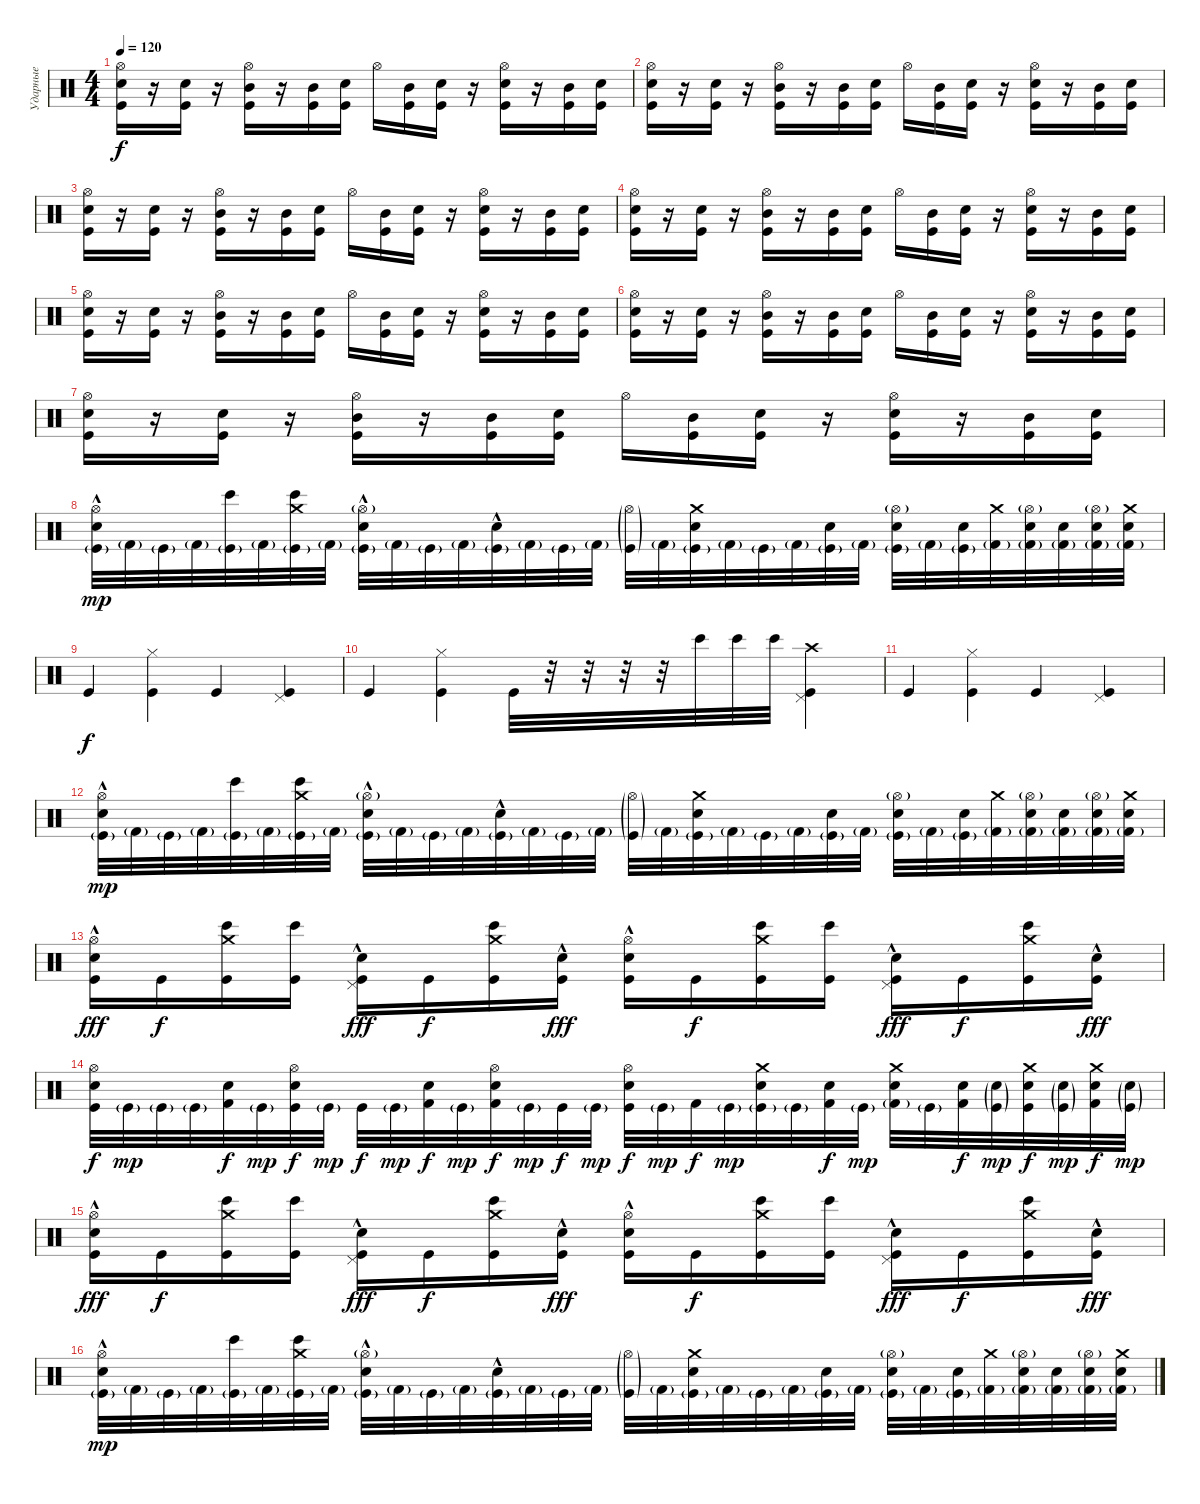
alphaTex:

\track ("Ударные" "Ударные") {instrument percussion}
\staff {score}
\articulation defaults
\ts (4 4)
\tempo 120
\clef neutral
\ks c
("Hi-Hat (open)" "Snare (hit) 2" "Kick (hit)").16{dy f} r.16 ("Snare (hit) 2" "Kick (hit)").16 r.16 ("Hi-Hat (open)" "Mid Tom (hit)" "Kick (hit)").16 r.16 ("Mid Tom (hit)" "Kick (hit)").16 ("Snare (hit) 2" "Kick (hit)").16 "Hi-Hat (open)".16 ("Mid Tom (hit)" "Kick (hit)").16 ("Snare (hit) 2" "Kick (hit)").16 r.16 ("Hi-Hat (open)" "Snare (hit) 2" "Kick (hit)").16 r.16 ("Mid Tom (hit)" "Kick (hit)").16 ("Snare (hit) 2" "Kick (hit)").16 |
("Hi-Hat (open)" "Snare (hit) 2" "Kick (hit)").16 r.16 ("Snare (hit) 2" "Kick (hit)").16 r.16 ("Hi-Hat (open)" "Mid Tom (hit)" "Kick (hit)").16 r.16 ("Mid Tom (hit)" "Kick (hit)").16 ("Snare (hit) 2" "Kick (hit)").16 "Hi-Hat (open)".16 ("Mid Tom (hit)" "Kick (hit)").16 ("Snare (hit) 2" "Kick (hit)").16 r.16 ("Hi-Hat (open)" "Snare (hit) 2" "Kick (hit)").16 r.16 ("Mid Tom (hit)" "Kick (hit)").16 ("Snare (hit) 2" "Kick (hit)").16 |
("Hi-Hat (open)" "Snare (hit) 2" "Kick (hit)").16 r.16 ("Snare (hit) 2" "Kick (hit)").16 r.16 ("Hi-Hat (open)" "Mid Tom (hit)" "Kick (hit)").16 r.16 ("Mid Tom (hit)" "Kick (hit)").16 ("Snare (hit) 2" "Kick (hit)").16 "Hi-Hat (open)".16 ("Mid Tom (hit)" "Kick (hit)").16 ("Snare (hit) 2" "Kick (hit)").16 r.16 ("Hi-Hat (open)" "Snare (hit) 2" "Kick (hit)").16 r.16 ("Mid Tom (hit)" "Kick (hit)").16 ("Snare (hit) 2" "Kick (hit)").16 |
("Hi-Hat (open)" "Snare (hit) 2" "Kick (hit)").16 r.16 ("Snare (hit) 2" "Kick (hit)").16 r.16 ("Hi-Hat (open)" "Mid Tom (hit)" "Kick (hit)").16 r.16 ("Mid Tom (hit)" "Kick (hit)").16 ("Snare (hit) 2" "Kick (hit)").16 "Hi-Hat (open)".16 ("Mid Tom (hit)" "Kick (hit)").16 ("Snare (hit) 2" "Kick (hit)").16 r.16 ("Hi-Hat (open)" "Snare (hit) 2" "Kick (hit)").16 r.16 ("Mid Tom (hit)" "Kick (hit)").16 ("Snare (hit) 2" "Kick (hit)").16 |
("Hi-Hat (open)" "Snare (hit) 2" "Kick (hit)").16 r.16 ("Snare (hit) 2" "Kick (hit)").16 r.16 ("Hi-Hat (open)" "Mid Tom (hit)" "Kick (hit)").16 r.16 ("Mid Tom (hit)" "Kick (hit)").16 ("Snare (hit) 2" "Kick (hit)").16 "Hi-Hat (open)".16 ("Mid Tom (hit)" "Kick (hit)").16 ("Snare (hit) 2" "Kick (hit)").16 r.16 ("Hi-Hat (open)" "Snare (hit) 2" "Kick (hit)").16 r.16 ("Mid Tom (hit)" "Kick (hit)").16 ("Snare (hit) 2" "Kick (hit)").16 |
("Hi-Hat (open)" "Snare (hit) 2" "Kick (hit)").16 r.16 ("Snare (hit) 2" "Kick (hit)").16 r.16 ("Hi-Hat (open)" "Mid Tom (hit)" "Kick (hit)").16 r.16 ("Mid Tom (hit)" "Kick (hit)").16 ("Snare (hit) 2" "Kick (hit)").16 "Hi-Hat (open)".16 ("Mid Tom (hit)" "Kick (hit)").16 ("Snare (hit) 2" "Kick (hit)").16 r.16 ("Hi-Hat (open)" "Snare (hit) 2" "Kick (hit)").16 r.16 ("Mid Tom (hit)" "Kick (hit)").16 ("Snare (hit) 2" "Kick (hit)").16 |
("Hi-Hat (open)" "Snare (hit) 2" "Kick (hit)").16 r.16 ("Snare (hit) 2" "Kick (hit)").16 r.16 ("Hi-Hat (open)" "Mid Tom (hit)" "Kick (hit)").16 r.16 ("Mid Tom (hit)" "Kick (hit)").16 ("Snare (hit) 2" "Kick (hit)").16 "Hi-Hat (open)".16 ("Mid Tom (hit)" "Kick (hit)").16 ("Snare (hit) 2" "Kick (hit)").16 r.16 ("Hi-Hat (open)" "Snare (hit) 2" "Kick (hit)").16 r.16 ("Mid Tom (hit)" "Kick (hit)").16 ("Snare (hit) 2" "Kick (hit)").16 |
("Hi-Hat (open)" "Snare (hit) 2"{hac} "Kick (hit)"{g}).32{dy mp} "Kick (hit) 2"{g}.32 "Kick (hit)"{g}.32 "Kick (hit) 2"{g}.32 ("Bongo High (hit)" "Kick (hit)"{g}).32 "Kick (hit) 2"{g}.32 ("Crash medium (hit)" "Bongo High (hit)" "Kick (hit)"{g}).32 "Kick (hit) 2"{g}.32 ("Hi-Hat (open)"{g} "Electric Snare (hit)"{hac} "Kick (hit)"{g}).32 "Kick (hit) 2"{g}.32 "Kick (hit)"{g}.32 "Kick (hit) 2"{g}.32 ("Snare (hit) 2"{hac} "Kick (hit)"{g}).32 "Kick (hit) 2"{g}.32 "Kick (hit)"{g}.32 "Kick (hit) 2"{g}.32 ("Hi-Hat (open)"{g} "Kick (hit)"{g}).32 "Kick (hit) 2"{g}.32 ("Crash medium (hit)" "Snare (hit) 2" "Kick (hit)"{g}).32 "Kick (hit) 2"{g}.32 "Kick (hit)"{g}.32 "Kick (hit) 2"{g}.32 ("Snare (hit) 2" "Kick (hit)"{g}).32 "Kick (hit) 2"{g}.32 ("Hi-Hat (open)"{g} "Electric Snare (hit)" "Kick (hit)"{g}).32 "Kick (hit) 2"{g}.32 ("Electric Snare (hit)" "Kick (hit)"{g}).32 ("Crash medium (hit)" "Kick (hit) 2"{g}).32 ("Hi-Hat (open)"{g} "Electric Snare (hit)" "Kick (hit) 2"{g}).32 ("Electric Snare (hit)" "Kick (hit) 2"{g}).32 ("Hi-Hat (open)"{g} "Electric Snare (hit)" "Kick (hit) 2"{g}).32 ("Crash medium (hit)" "Electric Snare (hit)" "Kick (hit) 2"{g}).32 |
"Kick (hit)".4{dy f} ("Hi-Hat (closed)" "Kick (hit)").4 "Kick (hit)".4 ("Pedal Hi-Hat (hit)" "Kick (hit)").4 |
"Kick (hit)".4 ("Hi-Hat (closed)" "Kick (hit)").4 "Kick (hit)".32 r.32 r.32 r.32 r.32 "Bongo High (hit)".32 "Bongo High (hit)".32 "Bongo High (hit)".32 ("Crash high (hit)" "Pedal Hi-Hat (hit)" "Kick (hit)").4 |
"Kick (hit)".4 ("Hi-Hat (closed)" "Kick (hit)").4 "Kick (hit)".4 ("Pedal Hi-Hat (hit)" "Kick (hit)").4 |
("Hi-Hat (open)" "Snare (hit) 2"{hac} "Kick (hit)"{g}).32{dy mp} "Kick (hit) 2"{g}.32 "Kick (hit)"{g}.32 "Kick (hit) 2"{g}.32 ("Bongo High (hit)" "Kick (hit)"{g}).32 "Kick (hit) 2"{g}.32 ("Crash medium (hit)" "Bongo High (hit)" "Kick (hit)"{g}).32 "Kick (hit) 2"{g}.32 ("Hi-Hat (open)"{g} "Electric Snare (hit)"{hac} "Kick (hit)"{g}).32 "Kick (hit) 2"{g}.32 "Kick (hit)"{g}.32 "Kick (hit) 2"{g}.32 ("Snare (hit) 2"{hac} "Kick (hit)"{g}).32 "Kick (hit) 2"{g}.32 "Kick (hit)"{g}.32 "Kick (hit) 2"{g}.32 ("Hi-Hat (open)"{g} "Kick (hit)"{g}).32 "Kick (hit) 2"{g}.32 ("Crash medium (hit)" "Snare (hit) 2" "Kick (hit)"{g}).32 "Kick (hit) 2"{g}.32 "Kick (hit)"{g}.32 "Kick (hit) 2"{g}.32 ("Snare (hit) 2" "Kick (hit)"{g}).32 "Kick (hit) 2"{g}.32 ("Hi-Hat (open)"{g} "Electric Snare (hit)" "Kick (hit)"{g}).32 "Kick (hit) 2"{g}.32 ("Electric Snare (hit)" "Kick (hit)"{g}).32 ("Crash medium (hit)" "Kick (hit) 2"{g}).32 ("Hi-Hat (open)"{g} "Electric Snare (hit)" "Kick (hit) 2"{g}).32 ("Electric Snare (hit)" "Kick (hit) 2"{g}).32 ("Hi-Hat (open)"{g} "Electric Snare (hit)" "Kick (hit) 2"{g}).32 ("Crash medium (hit)" "Electric Snare (hit)" "Kick (hit) 2"{g}).32 |
("Hi-Hat (open)" "Electric Snare (hit)"{hac} "Kick (hit)").16{dy fff} "Kick (hit)".16{dy f} ("Crash medium (hit)" "Bongo High (hit)" "Kick (hit)").16 ("Bongo High (hit)" "Kick (hit)").16 ("Pedal Hi-Hat (hit)" "Snare (hit) 2"{hac} "Kick (hit)").16{dy fff} "Kick (hit)".16{dy f} ("Crash medium (hit)" "Bongo High (hit)" "Kick (hit)").16 ("Electric Snare (hit)"{hac} "Kick (hit)").16{dy fff} ("Hi-Hat (open)" "Electric Snare (hit)"{hac} "Kick (hit)").16 "Kick (hit)".16{dy f} ("Crash medium (hit)" "Bongo High (hit)" "Kick (hit)").16 ("Bongo High (hit)" "Kick (hit)").16 ("Pedal Hi-Hat (hit)" "Snare (hit) 2"{hac} "Kick (hit)").16{dy fff} "Kick (hit)".16{dy f} ("Crash medium (hit)" "Bongo High (hit)" "Kick (hit)").16 ("Electric Snare (hit)"{hac} "Kick (hit)").16{dy fff} |
("Hi-Hat (open)" "Snare (hit) 2" "Kick (hit)").32{dy f} "Kick (hit)"{g}.32{dy mp} "Kick (hit)"{g}.32 "Kick (hit)"{g}.32 ("Electric Snare (hit)" "Kick (hit) 2").32{dy f} "Kick (hit)"{g}.32{dy mp} ("Hi-Hat (open)" "Snare (hit) 2" "Kick (hit)").32{dy f} "Kick (hit)"{g}.32{dy mp} "Kick (hit)".32{dy f} "Kick (hit)"{g}.32{dy mp} ("Electric Snare (hit)" "Kick (hit) 2").32{dy f} "Kick (hit)"{g}.32{dy mp} ("Hi-Hat (open)" "Electric Snare (hit)" "Kick (hit) 2").32{dy f} "Kick (hit)"{g}.32{dy mp} "Kick (hit)".32{dy f} "Kick (hit)"{g}.32{dy mp} ("Hi-Hat (open)" "Electric Snare (hit)" "Kick (hit)").32{dy f} "Kick (hit)"{g}.32{dy mp} "Kick (hit) 2".32{dy f} "Kick (hit)"{g}.32{dy mp} ("Crash medium (hit)" "Electric Snare (hit)" "Kick (hit)"{g}).32 "Kick (hit)"{g}.32 ("Electric Snare (hit)" "Kick (hit) 2").32{dy f} "Kick (hit)"{g}.32{dy mp} ("Crash medium (hit)" "Electric Snare (hit)" "Kick (hit) 2"{g}).32 "Kick (hit)"{g}.32 ("Snare (hit) 2" "Kick (hit) 2").32{dy f} ("Snare (hit) 2"{g} "Kick (hit)"{g}).32{dy mp} ("Crash medium (hit)" "Electric Snare (hit)" "Kick (hit)").32{dy f} ("Snare (hit) 2"{g} "Kick (hit)"{g}).32{dy mp} ("Crash medium (hit)" "Snare (hit) 2" "Kick (hit) 2").32{dy f} ("Snare (hit) 2"{g} "Kick (hit)"{g}).32{dy mp} |
("Hi-Hat (open)" "Electric Snare (hit)"{hac} "Kick (hit)").16{dy fff} "Kick (hit)".16{dy f} ("Crash medium (hit)" "Bongo High (hit)" "Kick (hit)").16 ("Bongo High (hit)" "Kick (hit)").16 ("Pedal Hi-Hat (hit)" "Snare (hit) 2"{hac} "Kick (hit)").16{dy fff} "Kick (hit)".16{dy f} ("Crash medium (hit)" "Bongo High (hit)" "Kick (hit)").16 ("Electric Snare (hit)"{hac} "Kick (hit)").16{dy fff} ("Hi-Hat (open)" "Electric Snare (hit)"{hac} "Kick (hit)").16 "Kick (hit)".16{dy f} ("Crash medium (hit)" "Bongo High (hit)" "Kick (hit)").16 ("Bongo High (hit)" "Kick (hit)").16 ("Pedal Hi-Hat (hit)" "Snare (hit) 2"{hac} "Kick (hit)").16{dy fff} "Kick (hit)".16{dy f} ("Crash medium (hit)" "Bongo High (hit)" "Kick (hit)").16 ("Electric Snare (hit)"{hac} "Kick (hit)").16{dy fff} |
("Hi-Hat (open)" "Snare (hit) 2"{hac} "Kick (hit)"{g}).32{dy mp} "Kick (hit) 2"{g}.32 "Kick (hit)"{g}.32 "Kick (hit) 2"{g}.32 ("Bongo High (hit)" "Kick (hit)"{g}).32 "Kick (hit) 2"{g}.32 ("Crash medium (hit)" "Bongo High (hit)" "Kick (hit)"{g}).32 "Kick (hit) 2"{g}.32 ("Hi-Hat (open)"{g} "Electric Snare (hit)"{hac} "Kick (hit)"{g}).32 "Kick (hit) 2"{g}.32 "Kick (hit)"{g}.32 "Kick (hit) 2"{g}.32 ("Snare (hit) 2"{hac} "Kick (hit)"{g}).32 "Kick (hit) 2"{g}.32 "Kick (hit)"{g}.32 "Kick (hit) 2"{g}.32 ("Hi-Hat (open)"{g} "Kick (hit)"{g}).32 "Kick (hit) 2"{g}.32 ("Crash medium (hit)" "Snare (hit) 2" "Kick (hit)"{g}).32 "Kick (hit) 2"{g}.32 "Kick (hit)"{g}.32 "Kick (hit) 2"{g}.32 ("Snare (hit) 2" "Kick (hit)"{g}).32 "Kick (hit) 2"{g}.32 ("Hi-Hat (open)"{g} "Electric Snare (hit)" "Kick (hit)"{g}).32 "Kick (hit) 2"{g}.32 ("Electric Snare (hit)" "Kick (hit)"{g}).32 ("Crash medium (hit)" "Kick (hit) 2"{g}).32 ("Hi-Hat (open)"{g} "Electric Snare (hit)" "Kick (hit) 2"{g}).32 ("Electric Snare (hit)" "Kick (hit) 2"{g}).32 ("Hi-Hat (open)"{g} "Electric Snare (hit)" "Kick (hit) 2"{g}).32 ("Crash medium (hit)" "Electric Snare (hit)" "Kick (hit) 2"{g}).32
